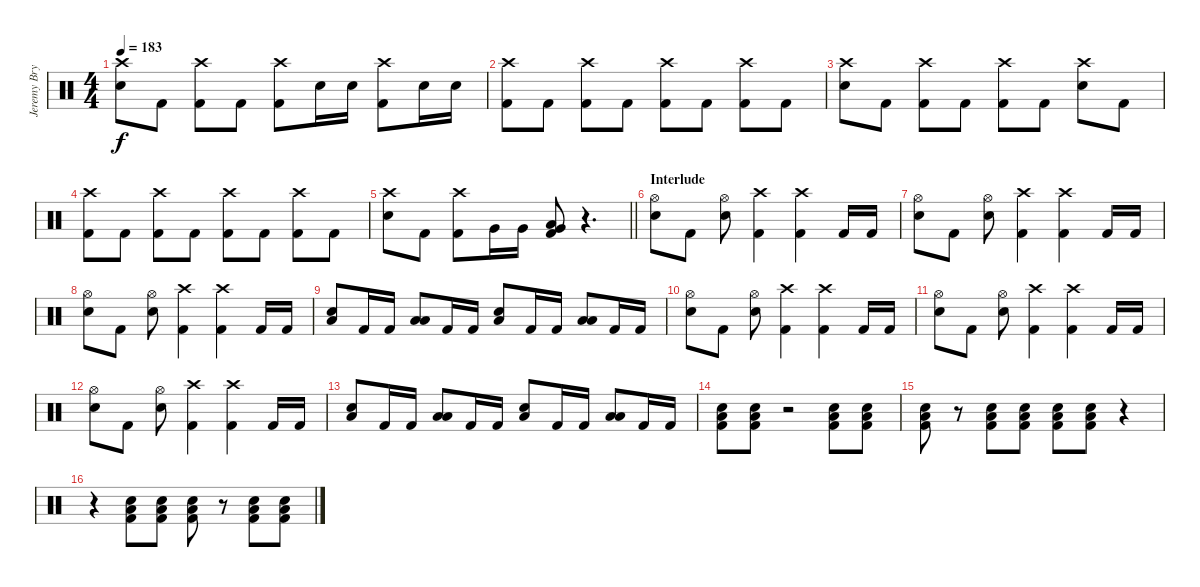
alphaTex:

\track ("Jeremy Bryan - Drums" "Jeremy Bry") {instrument percussion}
\staff {score}
\articulation defaults
\ts (4 4)
\tempo 183
\clef neutral
\ks c
("Crash high (hit)" "Electric Snare (hit)").8{dy f} "Kick (hit) 2".8 ("Crash high (hit)" "Kick (hit) 2").8 "Kick (hit) 2".8 ("Crash high (hit)" "Kick (hit) 2").8 "Electric Snare (hit)".16 "Electric Snare (hit)".16 ("Crash high (hit)" "Kick (hit) 2").8 "Electric Snare (hit)".16 "Electric Snare (hit)".16 |
("Crash high (hit)" "Kick (hit) 2").8 "Kick (hit) 2".8 ("Crash high (hit)" "Kick (hit) 2").8 "Kick (hit) 2".8 ("Crash high (hit)" "Kick (hit) 2").8 "Kick (hit) 2".8 ("Crash high (hit)" "Kick (hit) 2").8 "Kick (hit) 2".8 |
("Crash high (hit)" "Electric Snare (hit)").8 "Kick (hit) 2".8 ("Crash high (hit)" "Kick (hit) 2").8 "Kick (hit) 2".8 ("Crash high (hit)" "Kick (hit) 2").8 "Kick (hit) 2".8 ("Crash high (hit)" "Electric Snare (hit)").8 "Kick (hit) 2".8 |
("Crash high (hit)" "Kick (hit) 2").8 "Kick (hit) 2".8 ("Crash high (hit)" "Kick (hit) 2").8 "Kick (hit) 2".8 ("Crash high (hit)" "Kick (hit) 2").8 "Kick (hit) 2".8 ("Crash high (hit)" "Kick (hit) 2").8 "Kick (hit) 2".8 |
\barLineRight lightlight
("Crash high (hit)" "Electric Snare (hit)").8 "Kick (hit) 2".8 ("Crash high (hit)" "Kick (hit) 2").8 "Very Low Tom (hit)".16 "Very Low Tom (hit)".16 ("Very Low Tom (hit)" "Low Floor Tom (hit)" "Kick (hit) 2").8 r.4{d} |
\section ("" "Interlude")
("Hi-Hat (open)" "Electric Snare (hit)").8 "Kick (hit) 2".8 ("Hi-Hat (open)" "Electric Snare (hit)").8 ("Crash high (hit)" "Kick (hit) 2").4 ("Crash high (hit)" "Kick (hit) 2").4 "Kick (hit) 2".16 "Kick (hit) 2".16 |
("Hi-Hat (open)" "Electric Snare (hit)").8 "Kick (hit) 2".8 ("Hi-Hat (open)" "Electric Snare (hit)").8 ("Crash high (hit)" "Kick (hit) 2").4 ("Crash high (hit)" "Kick (hit) 2").4 "Kick (hit) 2".16 "Kick (hit) 2".16 |
("Hi-Hat (open)" "Electric Snare (hit)").8 "Kick (hit) 2".8 ("Hi-Hat (open)" "Electric Snare (hit)").8 ("Crash high (hit)" "Kick (hit) 2").4 ("Crash high (hit)" "Kick (hit) 2").4 "Kick (hit) 2".16 "Kick (hit) 2".16 |
("Low Floor Tom (hit)" "Electric Snare (hit)").8 "Kick (hit) 2".16 "Kick (hit) 2".16 ("Low Tom (hit)" "Low Floor Tom (hit)").8 "Kick (hit) 2".16 "Kick (hit) 2".16 ("Electric Snare (hit)" "Low Floor Tom (hit)").8 "Kick (hit) 2".16 "Kick (hit) 2".16 ("Low Tom (hit)" "Low Floor Tom (hit)").8 "Kick (hit) 2".16 "Kick (hit) 2".16 |
("Hi-Hat (open)" "Electric Snare (hit)").8 "Kick (hit) 2".8 ("Hi-Hat (open)" "Electric Snare (hit)").8 ("Crash high (hit)" "Kick (hit) 2").4 ("Crash high (hit)" "Kick (hit) 2").4 "Kick (hit) 2".16 "Kick (hit) 2".16 |
("Hi-Hat (open)" "Electric Snare (hit)").8 "Kick (hit) 2".8 ("Hi-Hat (open)" "Electric Snare (hit)").8 ("Crash high (hit)" "Kick (hit) 2").4 ("Crash high (hit)" "Kick (hit) 2").4 "Kick (hit) 2".16 "Kick (hit) 2".16 |
("Hi-Hat (open)" "Electric Snare (hit)").8 "Kick (hit) 2".8 ("Hi-Hat (open)" "Electric Snare (hit)").8 ("Crash high (hit)" "Kick (hit) 2").4 ("Crash high (hit)" "Kick (hit) 2").4 "Kick (hit) 2".16 "Kick (hit) 2".16 |
("Low Floor Tom (hit)" "Electric Snare (hit)").8 "Kick (hit) 2".16 "Kick (hit) 2".16 ("Low Tom (hit)" "Low Floor Tom (hit)").8 "Kick (hit) 2".16 "Kick (hit) 2".16 ("Electric Snare (hit)" "Low Floor Tom (hit)").8 "Kick (hit) 2".16 "Kick (hit) 2".16 ("Low Tom (hit)" "Low Floor Tom (hit)").8 "Kick (hit) 2".16 "Kick (hit) 2".16 |
("Electric Snare (hit)" "Low Floor Tom (hit)" "Kick (hit) 2").8 ("Electric Snare (hit)" "Low Floor Tom (hit)" "Kick (hit) 2").8 r.2 ("Electric Snare (hit)" "Low Floor Tom (hit)" "Kick (hit) 2").8 ("Electric Snare (hit)" "Low Floor Tom (hit)" "Kick (hit) 2").8 |
("Electric Snare (hit)" "Low Floor Tom (hit)" "Kick (hit) 2").8 r.8 ("Electric Snare (hit)" "Low Floor Tom (hit)" "Kick (hit) 2").8 ("Electric Snare (hit)" "Low Floor Tom (hit)" "Kick (hit) 2").8 ("Electric Snare (hit)" "Low Floor Tom (hit)" "Kick (hit) 2").8 ("Electric Snare (hit)" "Low Floor Tom (hit)" "Kick (hit) 2").8 r.4 |
r.4 ("Electric Snare (hit)" "Low Floor Tom (hit)" "Kick (hit) 2").8 ("Electric Snare (hit)" "Low Floor Tom (hit)" "Kick (hit) 2").8 ("Electric Snare (hit)" "Low Floor Tom (hit)" "Kick (hit) 2").8 r.8 ("Electric Snare (hit)" "Low Floor Tom (hit)" "Kick (hit) 2").8 ("Electric Snare (hit)" "Low Floor Tom (hit)" "Kick (hit) 2").8
